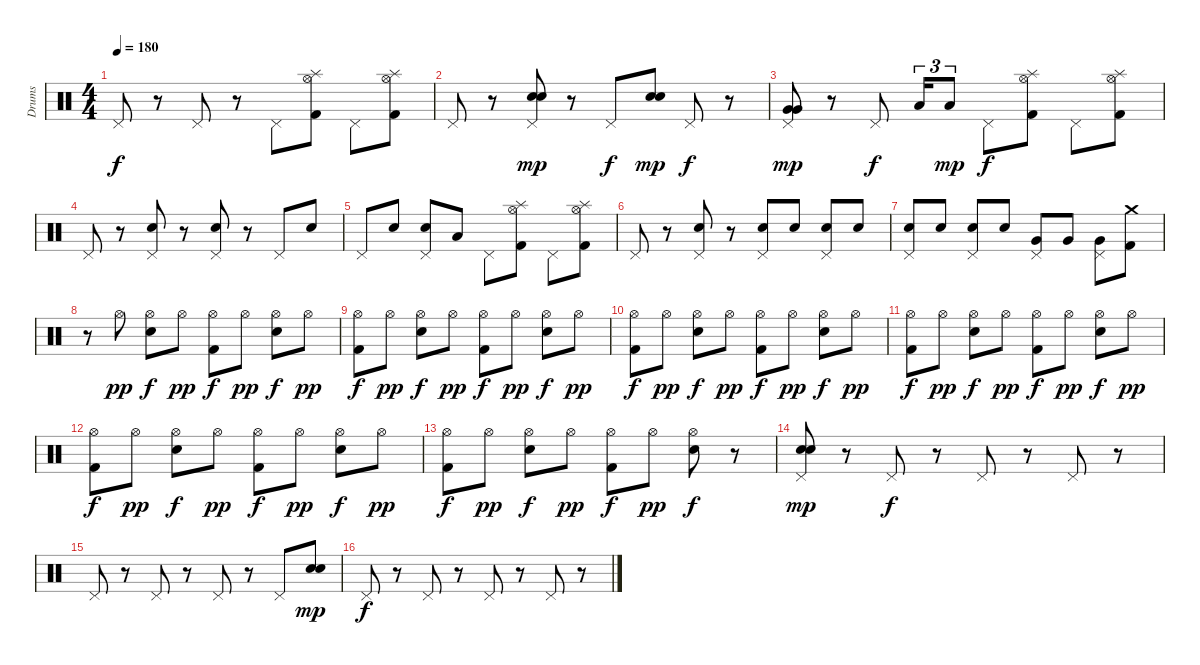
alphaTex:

\track ("Drums" "Drums") {instrument percussion}
\staff {score}
\articulation defaults
\ts (4 4)
\tempo 180
\clef neutral
\ks c "Pedal Hi-Hat (hit)".8{dy f}
r.8 "Pedal Hi-Hat (hit)".8 r.8 "Pedal Hi-Hat (hit)".8 ("Splash (hit)" "Hi-Hat (open)" "Kick (hit) 2").8 "Pedal Hi-Hat (hit)".8 ("Splash (hit)" "Hi-Hat (open)" "Kick (hit) 2").8 |
"Pedal Hi-Hat (hit)".8 r.8 ("Electric Snare (hit)" "Pedal Hi-Hat (hit)" "Snare (hit) 2").8{dy mp} r.8 "Pedal Hi-Hat (hit)".8{dy f} ("Electric Snare (hit)" "Snare (hit) 2").8{dy mp} "Pedal Hi-Hat (hit)".8{dy f} r.8 |
("Very Low Tom (hit)" "Pedal Hi-Hat (hit)" "Very Low Tom (hit)").8{dy mp} r.8 "Pedal Hi-Hat (hit)".8{dy f} "Low Floor Tom (hit)".16{tu (3 2)} "Low Floor Tom (hit)".8{tu (3 2) dy mp} "Pedal Hi-Hat (hit)".8{dy f} ("Kick (hit) 2" "Hi-Hat (open)" "Splash (hit)").8 "Pedal Hi-Hat (hit)".8 ("Kick (hit) 2" "Hi-Hat (open)" "Splash (hit)").8 |
"Pedal Hi-Hat (hit)".8 r.8 ("Electric Snare (hit)" "Pedal Hi-Hat (hit)").8 r.8 ("Electric Snare (hit)" "Pedal Hi-Hat (hit)").8 r.8 "Pedal Hi-Hat (hit)".8 "Electric Snare (hit)".8 |
"Pedal Hi-Hat (hit)".8 "Electric Snare (hit)".8 ("Electric Snare (hit)" "Pedal Hi-Hat (hit)").8 "Low Tom (hit)".8 "Pedal Hi-Hat (hit)".8 ("Splash (hit)" "Hi-Hat (open)" "Kick (hit) 2").8 "Pedal Hi-Hat (hit)".8 ("Splash (hit)" "Hi-Hat (open)" "Kick (hit) 2").8 |
"Pedal Hi-Hat (hit)".8 r.8 ("Electric Snare (hit)" "Pedal Hi-Hat (hit)").8 r.8 ("Electric Snare (hit)" "Pedal Hi-Hat (hit)").8 "Electric Snare (hit)".8 ("Electric Snare (hit)" "Pedal Hi-Hat (hit)").8 "Electric Snare (hit)".8 |
("Electric Snare (hit)" "Pedal Hi-Hat (hit)").8 "Electric Snare (hit)".8 ("Electric Snare (hit)" "Pedal Hi-Hat (hit)").8 "Electric Snare (hit)".8 ("Very Low Tom (hit)" "Pedal Hi-Hat (hit)").8 "Very Low Tom (hit)".8 ("Very Low Tom (hit)" "Pedal Hi-Hat (hit)").8 ("Crash medium (hit)" "Kick (hit) 2").8 |
r.8 "Hi-Hat (open)".8{dy pp} ("Hi-Hat (open)" "Electric Snare (hit)").8{dy f} "Hi-Hat (open)".8{dy pp} ("Hi-Hat (open)" "Kick (hit) 2").8{dy f} "Hi-Hat (open)".8{dy pp} ("Hi-Hat (open)" "Electric Snare (hit)").8{dy f} "Hi-Hat (open)".8{dy pp} |
("Hi-Hat (open)" "Kick (hit) 2").8{dy f} "Hi-Hat (open)".8{dy pp} ("Hi-Hat (open)" "Electric Snare (hit)").8{dy f} "Hi-Hat (open)".8{dy pp} ("Hi-Hat (open)" "Kick (hit) 2").8{dy f} "Hi-Hat (open)".8{dy pp} ("Hi-Hat (open)" "Electric Snare (hit)").8{dy f} "Hi-Hat (open)".8{dy pp} |
("Hi-Hat (open)" "Kick (hit) 2").8{dy f} "Hi-Hat (open)".8{dy pp} ("Hi-Hat (open)" "Electric Snare (hit)").8{dy f} "Hi-Hat (open)".8{dy pp} ("Hi-Hat (open)" "Kick (hit) 2").8{dy f} "Hi-Hat (open)".8{dy pp} ("Hi-Hat (open)" "Electric Snare (hit)").8{dy f} "Hi-Hat (open)".8{dy pp} |
("Hi-Hat (open)" "Kick (hit) 2").8{dy f} "Hi-Hat (open)".8{dy pp} ("Hi-Hat (open)" "Electric Snare (hit)").8{dy f} "Hi-Hat (open)".8{dy pp} ("Hi-Hat (open)" "Kick (hit) 2").8{dy f} "Hi-Hat (open)".8{dy pp} ("Hi-Hat (open)" "Electric Snare (hit)").8{dy f} "Hi-Hat (open)".8{dy pp} |
("Hi-Hat (open)" "Kick (hit) 2").8{dy f} "Hi-Hat (open)".8{dy pp} ("Hi-Hat (open)" "Electric Snare (hit)").8{dy f} "Hi-Hat (open)".8{dy pp} ("Hi-Hat (open)" "Kick (hit) 2").8{dy f} "Hi-Hat (open)".8{dy pp} ("Hi-Hat (open)" "Electric Snare (hit)").8{dy f} "Hi-Hat (open)".8{dy pp} |
("Hi-Hat (open)" "Kick (hit) 2").8{dy f} "Hi-Hat (open)".8{dy pp} ("Hi-Hat (open)" "Electric Snare (hit)").8{dy f} "Hi-Hat (open)".8{dy pp} ("Hi-Hat (open)" "Kick (hit) 2").8{dy f} "Hi-Hat (open)".8{dy pp} ("Hi-Hat (open)" "Electric Snare (hit)").8{dy f} r.8 |
("Pedal Hi-Hat (hit)" "Electric Snare (hit)" "Electric Snare (hit)").8{dy mp} r.8 "Pedal Hi-Hat (hit)".8{dy f} r.8 "Pedal Hi-Hat (hit)".8 r.8 "Pedal Hi-Hat (hit)".8 r.8 |
"Pedal Hi-Hat (hit)".8 r.8 "Pedal Hi-Hat (hit)".8 r.8 "Pedal Hi-Hat (hit)".8 r.8 "Pedal Hi-Hat (hit)".8 ("Electric Snare (hit)" "Electric Snare (hit)").8{dy mp} |
"Pedal Hi-Hat (hit)".8{dy f} r.8 "Pedal Hi-Hat (hit)".8 r.8 "Pedal Hi-Hat (hit)".8 r.8 "Pedal Hi-Hat (hit)".8 r.8
